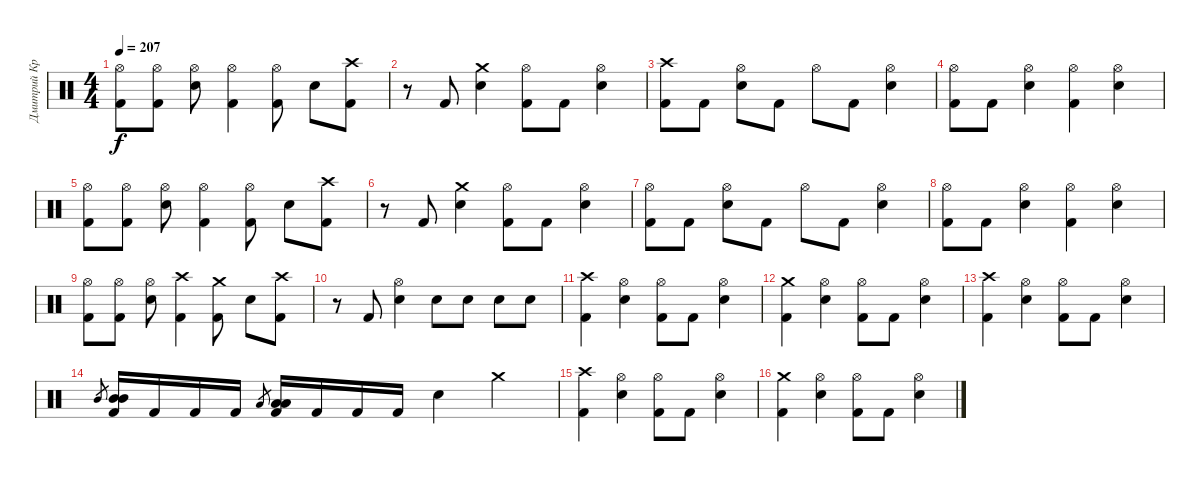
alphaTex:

\track ("Дмитрий Кривенков" "Дмитрий Кр") {instrument percussion}
\staff {score}
\articulation defaults
\ts (4 4)
\tempo 207
\clef neutral
\ks c
("Hi-Hat (open)" "Kick (hit) 2").8{dy f} ("Hi-Hat (open)" "Kick (hit) 2").8 ("Hi-Hat (open)" "Electric Snare (hit)").8 ("Hi-Hat (open)" "Kick (hit) 2").4 ("Hi-Hat (open)" "Kick (hit) 2").8 "Electric Snare (hit)".8 ("Crash high (hit)" "Kick (hit) 2").8 |
r.8 "Kick (hit) 2".8 ("Crash medium (hit)" "Electric Snare (hit)").4 ("Hi-Hat (open)" "Kick (hit) 2").8 "Kick (hit) 2".8 ("Hi-Hat (open)" "Electric Snare (hit)").4 |
("Crash high (hit)" "Kick (hit) 2").8 "Kick (hit) 2".8 ("Hi-Hat (open)" "Electric Snare (hit)").8 "Kick (hit) 2".8 "Hi-Hat (open)".8 "Kick (hit) 2".8 ("Hi-Hat (open)" "Electric Snare (hit)").4 |
("Hi-Hat (open)" "Kick (hit) 2").8 "Kick (hit) 2".8 ("Hi-Hat (open)" "Electric Snare (hit)").4 ("Hi-Hat (open)" "Kick (hit) 2").4 ("Hi-Hat (open)" "Electric Snare (hit)").4 |
("Hi-Hat (open)" "Kick (hit) 2").8 ("Hi-Hat (open)" "Kick (hit) 2").8 ("Hi-Hat (open)" "Electric Snare (hit)").8 ("Hi-Hat (open)" "Kick (hit) 2").4 ("Hi-Hat (open)" "Kick (hit) 2").8 "Electric Snare (hit)".8 ("Crash high (hit)" "Kick (hit) 2").8 |
r.8 "Kick (hit) 2".8 ("Crash medium (hit)" "Electric Snare (hit)").4 ("Hi-Hat (open)" "Kick (hit) 2").8 "Kick (hit) 2".8 ("Hi-Hat (open)" "Electric Snare (hit)").4 |
("Hi-Hat (open)" "Kick (hit) 2").8 "Kick (hit) 2".8 ("Hi-Hat (open)" "Electric Snare (hit)").8 "Kick (hit) 2".8 "Hi-Hat (open)".8 "Kick (hit) 2".8 ("Hi-Hat (open)" "Electric Snare (hit)").4 |
("Hi-Hat (open)" "Kick (hit) 2").8 "Kick (hit) 2".8 ("Hi-Hat (open)" "Electric Snare (hit)").4 ("Hi-Hat (open)" "Kick (hit) 2").4 ("Hi-Hat (open)" "Electric Snare (hit)").4 |
("Hi-Hat (open)" "Kick (hit) 2").8 ("Hi-Hat (open)" "Kick (hit) 2").8 ("Hi-Hat (open)" "Electric Snare (hit)").8 ("Crash high (hit)" "Kick (hit) 2").4 ("Crash medium (hit)" "Kick (hit) 2").8 "Electric Snare (hit)".8 ("Crash high (hit)" "Kick (hit) 2").8 |
r.8 "Kick (hit) 2".8 ("Hi-Hat (open)" "Electric Snare (hit)").4 "Electric Snare (hit)".8 "Electric Snare (hit)".8 "Electric Snare (hit)".8 "Electric Snare (hit)".8 |
("Crash high (hit)" "Kick (hit) 2").4 ("Hi-Hat (open)" "Electric Snare (hit)").4 ("Hi-Hat (open)" "Kick (hit) 2").8 "Kick (hit) 2".8 ("Hi-Hat (open)" "Electric Snare (hit)").4 |
("Crash medium (hit)" "Kick (hit) 2").4 ("Hi-Hat (open)" "Electric Snare (hit)").4 ("Hi-Hat (open)" "Kick (hit) 2").8 "Kick (hit) 2".8 ("Hi-Hat (open)" "Electric Snare (hit)").4 |
("Crash high (hit)" "Kick (hit) 2").4 ("Hi-Hat (open)" "Electric Snare (hit)").4 ("Hi-Hat (open)" "Kick (hit) 2").8 "Kick (hit) 2".8 ("Hi-Hat (open)" "Electric Snare (hit)").4 |
"Mid Tom (hit)".8{gr} ("Mid Tom (hit)" "Mid Tom (hit)" "Kick (hit) 2").16 "Kick (hit) 2".16 "Kick (hit) 2".16 "Kick (hit) 2".16 "Low Tom (hit)".8{gr} ("Low Tom (hit)" "Low Tom (hit)" "Kick (hit) 2").16 "Kick (hit) 2".16 "Kick (hit) 2".16 "Kick (hit) 2".16 "Electric Snare (hit)".4 "Crash medium (hit)".4 |
("Crash high (hit)" "Kick (hit) 2").4 ("Hi-Hat (open)" "Electric Snare (hit)").4 ("Hi-Hat (open)" "Kick (hit) 2").8 "Kick (hit) 2".8 ("Hi-Hat (open)" "Electric Snare (hit)").4 |
("Crash medium (hit)" "Kick (hit) 2").4 ("Hi-Hat (open)" "Electric Snare (hit)").4 ("Hi-Hat (open)" "Kick (hit) 2").8 "Kick (hit) 2".8 ("Hi-Hat (open)" "Electric Snare (hit)").4
